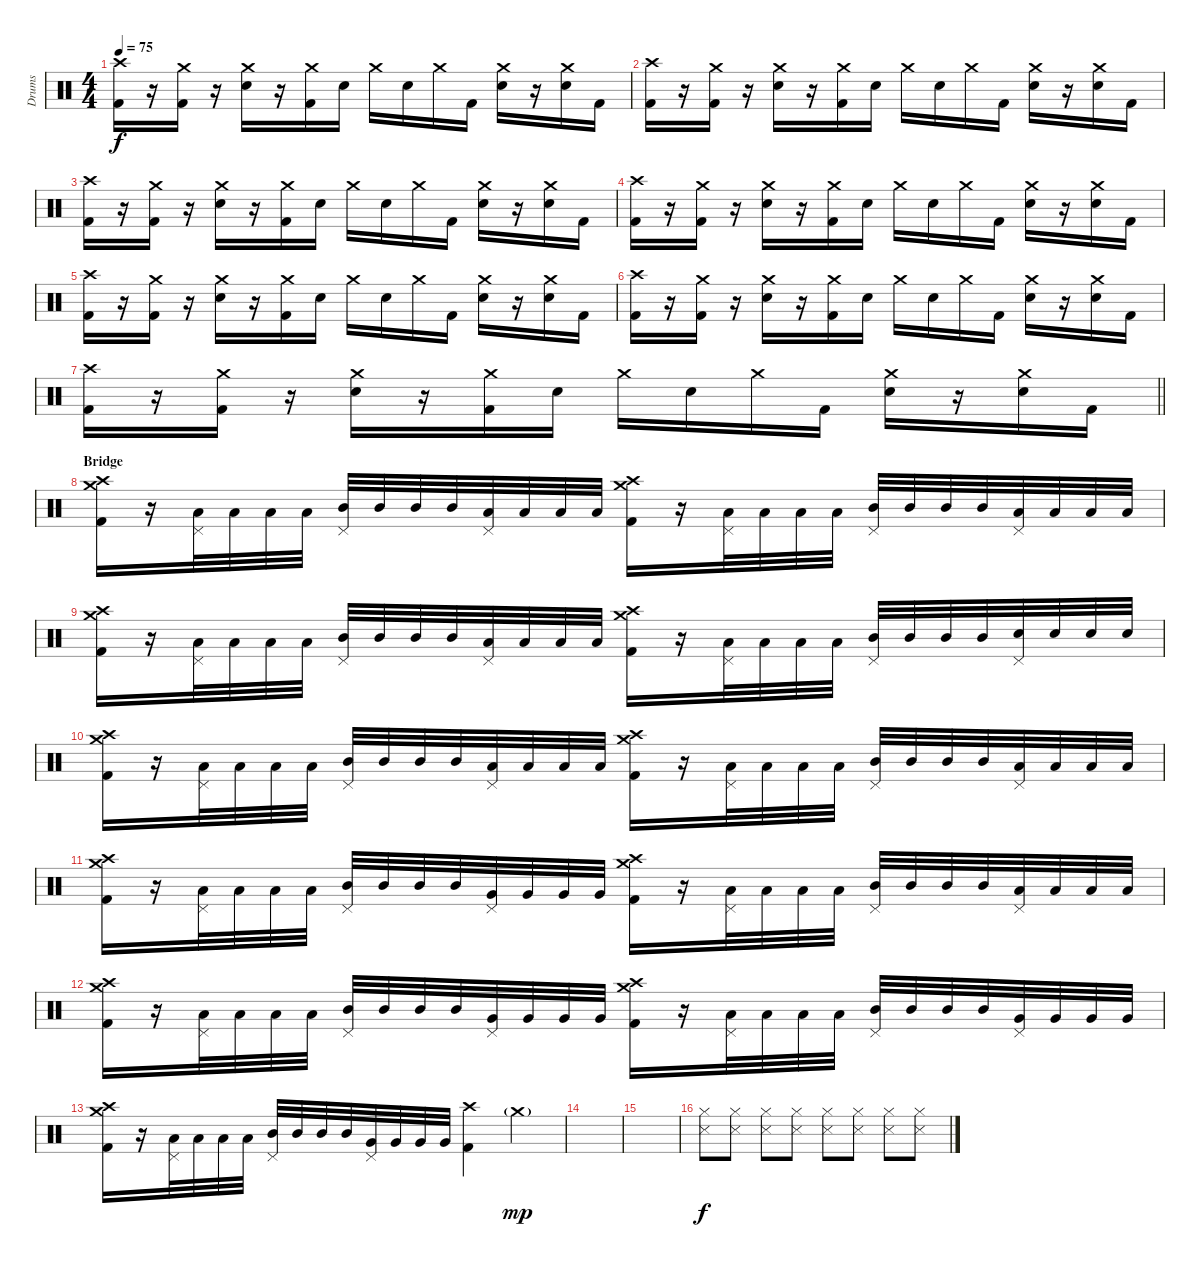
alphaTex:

\track ("Drums" "Drums") {instrument percussion}
\staff {score}
\articulation defaults
\ts (4 4)
\tempo 75
\clef neutral
\ks c
("Kick (hit) 2" "Crash high (hit)").16{dy f} r.16 ("Kick (hit) 2" "Crash medium (hit)").16 r.16 ("Snare (hit) 2" "Crash medium (hit)").16 r.16 ("Kick (hit) 2" "Crash medium (hit)").16 "Snare (hit) 2".16 "Crash medium (hit)".16 "Snare (hit) 2".16 "Crash medium (hit)".16 "Kick (hit) 2".16 ("Snare (hit) 2" "Crash medium (hit)").16 r.16 ("Snare (hit) 2" "Crash medium (hit)").16 "Kick (hit) 2".16 |
("Kick (hit) 2" "Crash high (hit)").16 r.16 ("Kick (hit) 2" "Crash medium (hit)").16 r.16 ("Snare (hit) 2" "Crash medium (hit)").16 r.16 ("Kick (hit) 2" "Crash medium (hit)").16 "Snare (hit) 2".16 "Crash medium (hit)".16 "Snare (hit) 2".16 "Crash medium (hit)".16 "Kick (hit) 2".16 ("Snare (hit) 2" "Crash medium (hit)").16 r.16 ("Snare (hit) 2" "Crash medium (hit)").16 "Kick (hit) 2".16 |
("Kick (hit) 2" "Crash high (hit)").16 r.16 ("Kick (hit) 2" "Crash medium (hit)").16 r.16 ("Snare (hit) 2" "Crash medium (hit)").16 r.16 ("Kick (hit) 2" "Crash medium (hit)").16 "Snare (hit) 2".16 "Crash medium (hit)".16 "Snare (hit) 2".16 "Crash medium (hit)".16 "Kick (hit) 2".16 ("Snare (hit) 2" "Crash medium (hit)").16 r.16 ("Snare (hit) 2" "Crash medium (hit)").16 "Kick (hit) 2".16 |
("Kick (hit) 2" "Crash high (hit)").16 r.16 ("Kick (hit) 2" "Crash medium (hit)").16 r.16 ("Snare (hit) 2" "Crash medium (hit)").16 r.16 ("Kick (hit) 2" "Crash medium (hit)").16 "Snare (hit) 2".16 "Crash medium (hit)".16 "Snare (hit) 2".16 "Crash medium (hit)".16 "Kick (hit) 2".16 ("Snare (hit) 2" "Crash medium (hit)").16 r.16 ("Snare (hit) 2" "Crash medium (hit)").16 "Kick (hit) 2".16 |
("Kick (hit) 2" "Crash high (hit)").16 r.16 ("Kick (hit) 2" "Crash medium (hit)").16 r.16 ("Snare (hit) 2" "Crash medium (hit)").16 r.16 ("Kick (hit) 2" "Crash medium (hit)").16 "Snare (hit) 2".16 "Crash medium (hit)".16 "Snare (hit) 2".16 "Crash medium (hit)".16 "Kick (hit) 2".16 ("Snare (hit) 2" "Crash medium (hit)").16 r.16 ("Snare (hit) 2" "Crash medium (hit)").16 "Kick (hit) 2".16 |
("Kick (hit) 2" "Crash high (hit)").16 r.16 ("Kick (hit) 2" "Crash medium (hit)").16 r.16 ("Snare (hit) 2" "Crash medium (hit)").16 r.16 ("Kick (hit) 2" "Crash medium (hit)").16 "Snare (hit) 2".16 "Crash medium (hit)".16 "Snare (hit) 2".16 "Crash medium (hit)".16 "Kick (hit) 2".16 ("Snare (hit) 2" "Crash medium (hit)").16 r.16 ("Snare (hit) 2" "Crash medium (hit)").16 "Kick (hit) 2".16 |
\barLineRight lightlight
("Kick (hit) 2" "Crash high (hit)").16 r.16 ("Kick (hit) 2" "Crash medium (hit)").16 r.16 ("Snare (hit) 2" "Crash medium (hit)").16 r.16 ("Kick (hit) 2" "Crash medium (hit)").16 "Snare (hit) 2".16 "Crash medium (hit)".16 "Snare (hit) 2".16 "Crash medium (hit)".16 "Kick (hit) 2".16 ("Snare (hit) 2" "Crash medium (hit)").16 r.16 ("Snare (hit) 2" "Crash medium (hit)").16 "Kick (hit) 2".16 |
\section ("" "Bridge")
("Kick (hit) 2" "Crash high (hit)" "Crash medium (hit)").16 r.16 ("Low Tom (hit)" "Pedal Hi-Hat (hit)").32 "Low Tom (hit)".32 "Low Tom (hit)".32 "Low Tom (hit)".32 ("Mid Tom (hit)" "Pedal Hi-Hat (hit)").32 "Mid Tom (hit)".32 "Mid Tom (hit)".32 "Mid Tom (hit)".32 ("Low Tom (hit)" "Pedal Hi-Hat (hit)").32 "Low Tom (hit)".32 "Low Tom (hit)".32 "Low Tom (hit)".32 ("Kick (hit) 2" "Crash high (hit)" "Crash medium (hit)").16 r.16 ("Low Tom (hit)" "Pedal Hi-Hat (hit)").32 "Low Tom (hit)".32 "Low Tom (hit)".32 "Low Tom (hit)".32 ("Mid Tom (hit)" "Pedal Hi-Hat (hit)").32 "Mid Tom (hit)".32 "Mid Tom (hit)".32 "Mid Tom (hit)".32 ("Low Tom (hit)" "Pedal Hi-Hat (hit)").32 "Low Tom (hit)".32 "Low Tom (hit)".32 "Low Tom (hit)".32 |
("Kick (hit) 2" "Crash high (hit)" "Crash medium (hit)").16 r.16 ("Low Tom (hit)" "Pedal Hi-Hat (hit)").32 "Low Tom (hit)".32 "Low Tom (hit)".32 "Low Tom (hit)".32 ("Mid Tom (hit)" "Pedal Hi-Hat (hit)").32 "Mid Tom (hit)".32 "Mid Tom (hit)".32 "Mid Tom (hit)".32 ("Low Tom (hit)" "Pedal Hi-Hat (hit)").32 "Low Tom (hit)".32 "Low Tom (hit)".32 "Low Tom (hit)".32 ("Kick (hit) 2" "Crash high (hit)" "Crash medium (hit)").16 r.16 ("Pedal Hi-Hat (hit)" "Low Tom (hit)").32 "Low Tom (hit)".32 "Low Tom (hit)".32 "Low Tom (hit)".32 ("Pedal Hi-Hat (hit)" "Mid Tom (hit)").32 "Mid Tom (hit)".32 "Mid Tom (hit)".32 "Mid Tom (hit)".32 ("Pedal Hi-Hat (hit)" "Snare (hit) 2").32 "Snare (hit) 2".32 "Snare (hit) 2".32 "Snare (hit) 2".32 |
("Kick (hit) 2" "Crash high (hit)" "Crash medium (hit)").16 r.16 ("Low Tom (hit)" "Pedal Hi-Hat (hit)").32 "Low Tom (hit)".32 "Low Tom (hit)".32 "Low Tom (hit)".32 ("Mid Tom (hit)" "Pedal Hi-Hat (hit)").32 "Mid Tom (hit)".32 "Mid Tom (hit)".32 "Mid Tom (hit)".32 ("Low Tom (hit)" "Pedal Hi-Hat (hit)").32 "Low Tom (hit)".32 "Low Tom (hit)".32 "Low Tom (hit)".32 ("Kick (hit) 2" "Crash high (hit)" "Crash medium (hit)").16 r.16 ("Low Tom (hit)" "Pedal Hi-Hat (hit)").32 "Low Tom (hit)".32 "Low Tom (hit)".32 "Low Tom (hit)".32 ("Mid Tom (hit)" "Pedal Hi-Hat (hit)").32 "Mid Tom (hit)".32 "Mid Tom (hit)".32 "Mid Tom (hit)".32 ("Low Tom (hit)" "Pedal Hi-Hat (hit)").32 "Low Tom (hit)".32 "Low Tom (hit)".32 "Low Tom (hit)".32 |
("Kick (hit) 2" "Crash high (hit)" "Crash medium (hit)").16 r.16 ("Low Tom (hit)" "Pedal Hi-Hat (hit)").32 "Low Tom (hit)".32 "Low Tom (hit)".32 "Low Tom (hit)".32 ("Mid Tom (hit)" "Pedal Hi-Hat (hit)").32 "Mid Tom (hit)".32 "Mid Tom (hit)".32 "Mid Tom (hit)".32 ("Very Low Tom (hit)" "Pedal Hi-Hat (hit)").32 "Very Low Tom (hit)".32 "Very Low Tom (hit)".32 "Very Low Tom (hit)".32 ("Kick (hit) 2" "Crash high (hit)" "Crash medium (hit)").16 r.16 ("Low Tom (hit)" "Pedal Hi-Hat (hit)").32 "Low Tom (hit)".32 "Low Tom (hit)".32 "Low Tom (hit)".32 ("Mid Tom (hit)" "Pedal Hi-Hat (hit)").32 "Mid Tom (hit)".32 "Mid Tom (hit)".32 "Mid Tom (hit)".32 ("Low Tom (hit)" "Pedal Hi-Hat (hit)").32 "Low Tom (hit)".32 "Low Tom (hit)".32 "Low Tom (hit)".32 |
("Kick (hit) 2" "Crash high (hit)" "Crash medium (hit)").16 r.16 ("Low Tom (hit)" "Pedal Hi-Hat (hit)").32 "Low Tom (hit)".32 "Low Tom (hit)".32 "Low Tom (hit)".32 ("Mid Tom (hit)" "Pedal Hi-Hat (hit)").32 "Mid Tom (hit)".32 "Mid Tom (hit)".32 "Mid Tom (hit)".32 ("Very Low Tom (hit)" "Pedal Hi-Hat (hit)").32 "Very Low Tom (hit)".32 "Very Low Tom (hit)".32 "Very Low Tom (hit)".32 ("Kick (hit) 2" "Crash high (hit)" "Crash medium (hit)").16 r.16 ("Low Tom (hit)" "Pedal Hi-Hat (hit)").32 "Low Tom (hit)".32 "Low Tom (hit)".32 "Low Tom (hit)".32 ("Mid Tom (hit)" "Pedal Hi-Hat (hit)").32 "Mid Tom (hit)".32 "Mid Tom (hit)".32 "Mid Tom (hit)".32 ("Very Low Tom (hit)" "Pedal Hi-Hat (hit)").32 "Very Low Tom (hit)".32 "Very Low Tom (hit)".32 "Very Low Tom (hit)".32 |
("Kick (hit) 2" "Crash high (hit)" "Crash medium (hit)").16 r.16 ("Low Tom (hit)" "Pedal Hi-Hat (hit)").32 "Low Tom (hit)".32 "Low Tom (hit)".32 "Low Tom (hit)".32 ("Mid Tom (hit)" "Pedal Hi-Hat (hit)").32 "Mid Tom (hit)".32 "Mid Tom (hit)".32 "Mid Tom (hit)".32 ("Very Low Tom (hit)" "Pedal Hi-Hat (hit)").32 "Very Low Tom (hit)".32 "Very Low Tom (hit)".32 "Very Low Tom (hit)".32 ("Kick (hit) 2" "Crash high (hit)").4 "Crash medium (hit)"{g}.4{dy mp} |
|
|
("Snare (side stick) 3" "Hi-Hat (closed)").8{dy f} ("Snare (side stick) 3" "Hi-Hat (closed)").8 ("Snare (side stick) 3" "Hi-Hat (closed)").8 ("Snare (side stick) 3" "Hi-Hat (closed)").8 ("Snare (side stick) 3" "Hi-Hat (closed)").8 ("Snare (side stick) 3" "Hi-Hat (closed)").8 ("Snare (side stick) 3" "Hi-Hat (closed)").8 ("Snare (side stick) 3" "Hi-Hat (closed)").8
